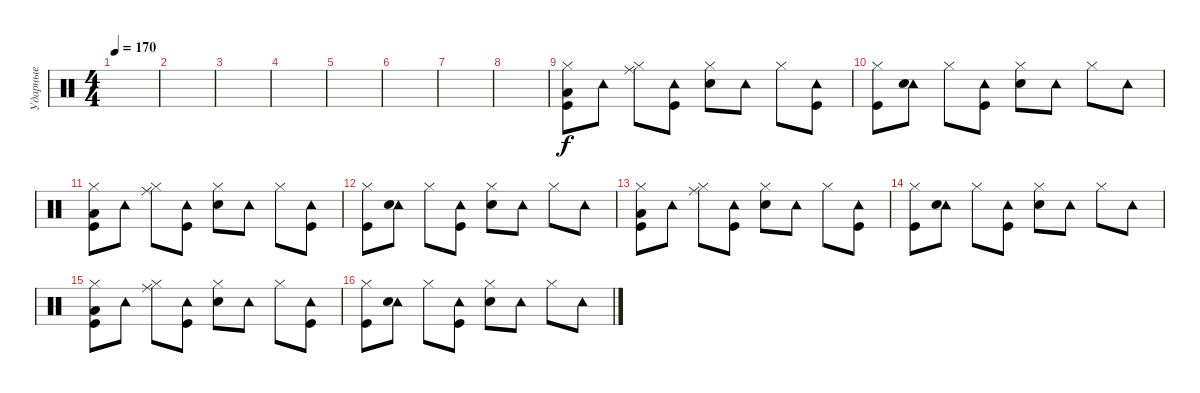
\track ("Ударные" "Ударные") {instrument percussion}
\staff {score}
\articulation defaults
\ts (4 4)
\tempo 170
\clef neutral
\ks c
|
|
|
|
|
|
|
|
("Hi-Hat (closed)" "Kick (hit)" "Low Floor Tom (hit)").8{volume 8 balance 16} "Tambourine (hit)".8 ("Hi-Hat (closed)" "Ride (middle)").8 ("Tambourine (hit)" "Kick (hit)").8 ("Hi-Hat (closed)" "Electric Snare (hit)").8 "Tambourine (hit)".8 "Hi-Hat (closed)".8 ("Tambourine (hit)" "Kick (hit)").8 |
("Hi-Hat (closed)" "Kick (hit)").8{volume 8 balance 8} ("Tambourine (hit)" "Electric Snare (hit)").8 "Hi-Hat (closed)".8 ("Tambourine (hit)" "Kick (hit)").8 ("Hi-Hat (closed)" "Electric Snare (hit)").8 "Tambourine (hit)".8 "Hi-Hat (closed)".8 "Tambourine (hit)".8 |
("Hi-Hat (closed)" "Kick (hit)" "Low Floor Tom (hit)").8{volume 8 balance 0} "Tambourine (hit)".8 ("Hi-Hat (closed)" "Ride (middle)").8 ("Tambourine (hit)" "Kick (hit)").8 ("Hi-Hat (closed)" "Electric Snare (hit)").8 "Tambourine (hit)".8 "Hi-Hat (closed)".8 ("Tambourine (hit)" "Kick (hit)").8 |
("Hi-Hat (closed)" "Kick (hit)").8{volume 8 balance 8} ("Tambourine (hit)" "Electric Snare (hit)").8 "Hi-Hat (closed)".8 ("Tambourine (hit)" "Kick (hit)").8 ("Hi-Hat (closed)" "Electric Snare (hit)").8 "Tambourine (hit)".8 "Hi-Hat (closed)".8 "Tambourine (hit)".8 |
("Hi-Hat (closed)" "Kick (hit)" "Low Floor Tom (hit)").8{volume 8 balance 16} "Tambourine (hit)".8 ("Hi-Hat (closed)" "Ride (middle)").8 ("Tambourine (hit)" "Kick (hit)").8 ("Hi-Hat (closed)" "Electric Snare (hit)").8 "Tambourine (hit)".8 "Hi-Hat (closed)".8 ("Tambourine (hit)" "Kick (hit)").8 |
("Hi-Hat (closed)" "Kick (hit)").8{volume 8 balance 8} ("Tambourine (hit)" "Electric Snare (hit)").8 "Hi-Hat (closed)".8 ("Tambourine (hit)" "Kick (hit)").8 ("Hi-Hat (closed)" "Electric Snare (hit)").8 "Tambourine (hit)".8 "Hi-Hat (closed)".8 "Tambourine (hit)".8 |
("Hi-Hat (closed)" "Kick (hit)" "Low Floor Tom (hit)").8{volume 8 balance 0} "Tambourine (hit)".8 ("Hi-Hat (closed)" "Ride (middle)").8 ("Tambourine (hit)" "Kick (hit)").8 ("Hi-Hat (closed)" "Electric Snare (hit)").8 "Tambourine (hit)".8 "Hi-Hat (closed)".8 ("Tambourine (hit)" "Kick (hit)").8 |
("Hi-Hat (closed)" "Kick (hit)").8{volume 8 balance 8} ("Tambourine (hit)" "Electric Snare (hit)").8 "Hi-Hat (closed)".8 ("Tambourine (hit)" "Kick (hit)").8 ("Hi-Hat (closed)" "Electric Snare (hit)").8 "Tambourine (hit)".8 "Hi-Hat (closed)".8 "Tambourine (hit)".8
